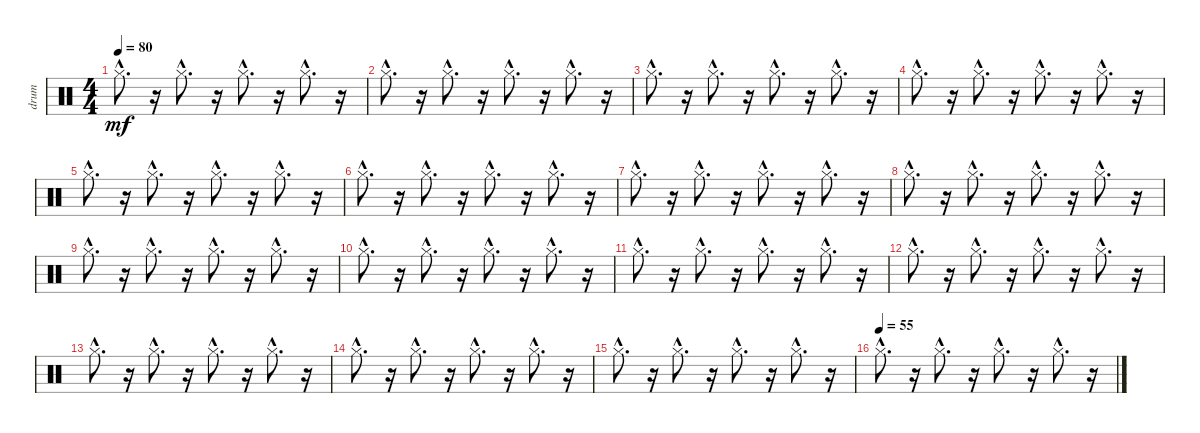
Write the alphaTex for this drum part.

\track ("drum" "drum") {instrument percussion}
\staff {score}
\articulation defaults
\ts (4 4)
\tempo 80
\clef neutral
\ks c "Hi-Hat (closed)"{hac}.8{d dy mf}
r.16 "Hi-Hat (closed)"{hac}.8{d} r.16 "Hi-Hat (closed)"{hac}.8{d} r.16 "Hi-Hat (closed)"{hac}.8{d} r.16 |
"Hi-Hat (closed)"{hac}.8{d} r.16 "Hi-Hat (closed)"{hac}.8{d} r.16 "Hi-Hat (closed)"{hac}.8{d} r.16 "Hi-Hat (closed)"{hac}.8{d} r.16 |
"Hi-Hat (closed)"{hac}.8{d} r.16 "Hi-Hat (closed)"{hac}.8{d} r.16 "Hi-Hat (closed)"{hac}.8{d} r.16 "Hi-Hat (closed)"{hac}.8{d} r.16 |
"Hi-Hat (closed)"{hac}.8{d} r.16 "Hi-Hat (closed)"{hac}.8{d} r.16 "Hi-Hat (closed)"{hac}.8{d} r.16 "Hi-Hat (closed)"{hac}.8{d} r.16 |
"Hi-Hat (closed)"{hac}.8{d} r.16 "Hi-Hat (closed)"{hac}.8{d} r.16 "Hi-Hat (closed)"{hac}.8{d} r.16 "Hi-Hat (closed)"{hac}.8{d} r.16 |
"Hi-Hat (closed)"{hac}.8{d} r.16 "Hi-Hat (closed)"{hac}.8{d} r.16 "Hi-Hat (closed)"{hac}.8{d} r.16 "Hi-Hat (closed)"{hac}.8{d} r.16 |
"Hi-Hat (closed)"{hac}.8{d} r.16 "Hi-Hat (closed)"{hac}.8{d} r.16 "Hi-Hat (closed)"{hac}.8{d} r.16 "Hi-Hat (closed)"{hac}.8{d} r.16 |
"Hi-Hat (closed)"{hac}.8{d} r.16 "Hi-Hat (closed)"{hac}.8{d} r.16 "Hi-Hat (closed)"{hac}.8{d} r.16 "Hi-Hat (closed)"{hac}.8{d} r.16 |
"Hi-Hat (closed)"{hac}.8{d} r.16 "Hi-Hat (closed)"{hac}.8{d} r.16 "Hi-Hat (closed)"{hac}.8{d} r.16 "Hi-Hat (closed)"{hac}.8{d} r.16 |
"Hi-Hat (closed)"{hac}.8{d} r.16 "Hi-Hat (closed)"{hac}.8{d} r.16 "Hi-Hat (closed)"{hac}.8{d} r.16 "Hi-Hat (closed)"{hac}.8{d} r.16 |
"Hi-Hat (closed)"{hac}.8{d} r.16 "Hi-Hat (closed)"{hac}.8{d} r.16 "Hi-Hat (closed)"{hac}.8{d} r.16 "Hi-Hat (closed)"{hac}.8{d} r.16 |
"Hi-Hat (closed)"{hac}.8{d} r.16 "Hi-Hat (closed)"{hac}.8{d} r.16 "Hi-Hat (closed)"{hac}.8{d} r.16 "Hi-Hat (closed)"{hac}.8{d} r.16 |
"Hi-Hat (closed)"{hac}.8{d} r.16 "Hi-Hat (closed)"{hac}.8{d} r.16 "Hi-Hat (closed)"{hac}.8{d} r.16 "Hi-Hat (closed)"{hac}.8{d} r.16 |
"Hi-Hat (closed)"{hac}.8{d} r.16 "Hi-Hat (closed)"{hac}.8{d} r.16 "Hi-Hat (closed)"{hac}.8{d} r.16 "Hi-Hat (closed)"{hac}.8{d} r.16 |
"Hi-Hat (closed)"{hac}.8{d} r.16 "Hi-Hat (closed)"{hac}.8{d} r.16 "Hi-Hat (closed)"{hac}.8{d} r.16 "Hi-Hat (closed)"{hac}.8{d} r.16 |
\tempo (55)
"Hi-Hat (closed)"{hac}.8{d} r.16 "Hi-Hat (closed)"{hac}.8{d} r.16 "Hi-Hat (closed)"{hac}.8{d} r.16 "Hi-Hat (closed)"{hac}.8{d} r.16
